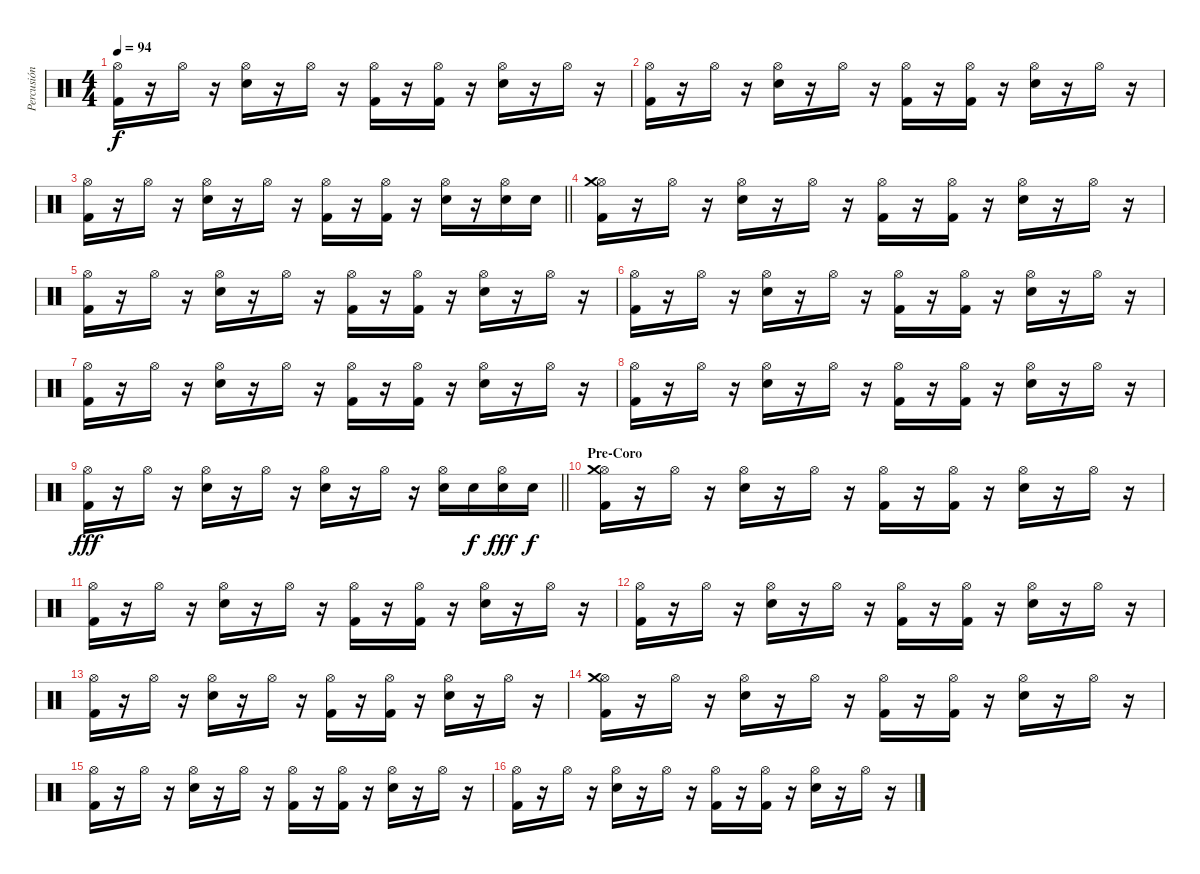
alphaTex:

\track ("Percusión" "Percusión") {instrument percussion}
\staff {score}
\articulation defaults
\ts (4 4)
\tempo 94
\clef neutral
\ks c
("Hi-Hat (open)" "Kick (hit) 2").16{dy f} r.16 "Hi-Hat (open)".16 r.16 ("Hi-Hat (open)" "Electric Snare (hit)").16 r.16 "Hi-Hat (open)".16 r.16 ("Hi-Hat (open)" "Kick (hit) 2").16 r.16 ("Hi-Hat (open)" "Kick (hit) 2").16 r.16 ("Hi-Hat (open)" "Electric Snare (hit)").16 r.16 "Hi-Hat (open)".16 r.16 |
("Hi-Hat (open)" "Kick (hit) 2").16 r.16 "Hi-Hat (open)".16 r.16 ("Hi-Hat (open)" "Electric Snare (hit)").16 r.16 "Hi-Hat (open)".16 r.16 ("Hi-Hat (open)" "Kick (hit) 2").16 r.16 ("Hi-Hat (open)" "Kick (hit) 2").16 r.16 ("Hi-Hat (open)" "Electric Snare (hit)").16 r.16 "Hi-Hat (open)".16 r.16 |
\barLineRight lightlight
("Hi-Hat (open)" "Kick (hit) 2").16 r.16 "Hi-Hat (open)".16 r.16 ("Hi-Hat (open)" "Electric Snare (hit)").16 r.16 "Hi-Hat (open)".16 r.16 ("Hi-Hat (open)" "Kick (hit) 2").16 r.16 ("Hi-Hat (open)" "Kick (hit) 2").16 r.16 ("Hi-Hat (open)" "Electric Snare (hit)").16 r.16 ("Hi-Hat (open)" "Electric Snare (hit)").16 "Electric Snare (hit)".16 |
("Hi-Hat (open)" "Kick (hit) 2" "Crash medium (hit)").16 r.16 "Hi-Hat (open)".16 r.16 ("Hi-Hat (open)" "Electric Snare (hit)").16 r.16 "Hi-Hat (open)".16 r.16 ("Hi-Hat (open)" "Kick (hit) 2").16 r.16 ("Hi-Hat (open)" "Kick (hit) 2").16 r.16 ("Hi-Hat (open)" "Electric Snare (hit)").16 r.16 "Hi-Hat (open)".16 r.16 |
("Hi-Hat (open)" "Kick (hit) 2").16 r.16 "Hi-Hat (open)".16 r.16 ("Hi-Hat (open)" "Electric Snare (hit)").16 r.16 "Hi-Hat (open)".16 r.16 ("Hi-Hat (open)" "Kick (hit) 2").16 r.16 ("Hi-Hat (open)" "Kick (hit) 2").16 r.16 ("Hi-Hat (open)" "Electric Snare (hit)").16 r.16 "Hi-Hat (open)".16 r.16 |
("Hi-Hat (open)" "Kick (hit) 2").16 r.16 "Hi-Hat (open)".16 r.16 ("Hi-Hat (open)" "Electric Snare (hit)").16 r.16 "Hi-Hat (open)".16 r.16 ("Hi-Hat (open)" "Kick (hit) 2").16 r.16 ("Hi-Hat (open)" "Kick (hit) 2").16 r.16 ("Hi-Hat (open)" "Electric Snare (hit)").16 r.16 "Hi-Hat (open)".16 r.16 |
("Hi-Hat (open)" "Kick (hit) 2").16 r.16 "Hi-Hat (open)".16 r.16 ("Hi-Hat (open)" "Electric Snare (hit)").16 r.16 "Hi-Hat (open)".16 r.16 ("Hi-Hat (open)" "Kick (hit) 2").16 r.16 ("Hi-Hat (open)" "Kick (hit) 2").16 r.16 ("Hi-Hat (open)" "Electric Snare (hit)").16 r.16 "Hi-Hat (open)".16 r.16 |
("Hi-Hat (open)" "Kick (hit) 2").16 r.16 "Hi-Hat (open)".16 r.16 ("Hi-Hat (open)" "Electric Snare (hit)").16 r.16 "Hi-Hat (open)".16 r.16 ("Hi-Hat (open)" "Kick (hit) 2").16 r.16 ("Hi-Hat (open)" "Kick (hit) 2").16 r.16 ("Hi-Hat (open)" "Electric Snare (hit)").16 r.16 "Hi-Hat (open)".16 r.16 |
\barLineRight lightlight
("Hi-Hat (open)" "Kick (hit) 2").16{dy fff} r.16 "Hi-Hat (open)".16 r.16 ("Hi-Hat (open)" "Electric Snare (hit)").16 r.16 "Hi-Hat (open)".16 r.16 ("Hi-Hat (open)" "Electric Snare (hit)").16 r.16 "Hi-Hat (open)".16 r.16 ("Hi-Hat (open)" "Electric Snare (hit)").16 "Electric Snare (hit)".16{dy f} ("Hi-Hat (open)" "Electric Snare (hit)").16{dy fff} "Electric Snare (hit)".16{dy f} |
\section ("" "Pre-Coro")
("Hi-Hat (open)" "Kick (hit) 2" "Crash medium (hit)").16 r.16 "Hi-Hat (open)".16 r.16 ("Hi-Hat (open)" "Electric Snare (hit)").16 r.16 "Hi-Hat (open)".16 r.16 ("Hi-Hat (open)" "Kick (hit) 2").16 r.16 ("Hi-Hat (open)" "Kick (hit) 2").16 r.16 ("Hi-Hat (open)" "Electric Snare (hit)").16 r.16 "Hi-Hat (open)".16 r.16 |
("Hi-Hat (open)" "Kick (hit) 2").16 r.16 "Hi-Hat (open)".16 r.16 ("Hi-Hat (open)" "Electric Snare (hit)").16 r.16 "Hi-Hat (open)".16 r.16 ("Hi-Hat (open)" "Kick (hit) 2").16 r.16 ("Hi-Hat (open)" "Kick (hit) 2").16 r.16 ("Hi-Hat (open)" "Electric Snare (hit)").16 r.16 "Hi-Hat (open)".16 r.16 |
("Hi-Hat (open)" "Kick (hit) 2").16 r.16 "Hi-Hat (open)".16 r.16 ("Hi-Hat (open)" "Electric Snare (hit)").16 r.16 "Hi-Hat (open)".16 r.16 ("Hi-Hat (open)" "Kick (hit) 2").16 r.16 ("Hi-Hat (open)" "Kick (hit) 2").16 r.16 ("Hi-Hat (open)" "Electric Snare (hit)").16 r.16 "Hi-Hat (open)".16 r.16 |
("Hi-Hat (open)" "Kick (hit) 2").16 r.16 "Hi-Hat (open)".16 r.16 ("Hi-Hat (open)" "Electric Snare (hit)").16 r.16 "Hi-Hat (open)".16 r.16 ("Hi-Hat (open)" "Kick (hit) 2").16 r.16 ("Hi-Hat (open)" "Kick (hit) 2").16 r.16 ("Hi-Hat (open)" "Electric Snare (hit)").16 r.16 "Hi-Hat (open)".16 r.16 |
("Hi-Hat (open)" "Kick (hit) 2" "Crash medium (hit)").16 r.16 "Hi-Hat (open)".16 r.16 ("Hi-Hat (open)" "Electric Snare (hit)").16 r.16 "Hi-Hat (open)".16 r.16 ("Hi-Hat (open)" "Kick (hit) 2").16 r.16 ("Hi-Hat (open)" "Kick (hit) 2").16 r.16 ("Hi-Hat (open)" "Electric Snare (hit)").16 r.16 "Hi-Hat (open)".16 r.16 |
("Hi-Hat (open)" "Kick (hit) 2").16 r.16 "Hi-Hat (open)".16 r.16 ("Hi-Hat (open)" "Electric Snare (hit)").16 r.16 "Hi-Hat (open)".16 r.16 ("Hi-Hat (open)" "Kick (hit) 2").16 r.16 ("Hi-Hat (open)" "Kick (hit) 2").16 r.16 ("Hi-Hat (open)" "Electric Snare (hit)").16 r.16 "Hi-Hat (open)".16 r.16 |
("Hi-Hat (open)" "Kick (hit) 2").16 r.16 "Hi-Hat (open)".16 r.16 ("Hi-Hat (open)" "Electric Snare (hit)").16 r.16 "Hi-Hat (open)".16 r.16 ("Hi-Hat (open)" "Kick (hit) 2").16 r.16 ("Hi-Hat (open)" "Kick (hit) 2").16 r.16 ("Hi-Hat (open)" "Electric Snare (hit)").16 r.16 "Hi-Hat (open)".16 r.16
